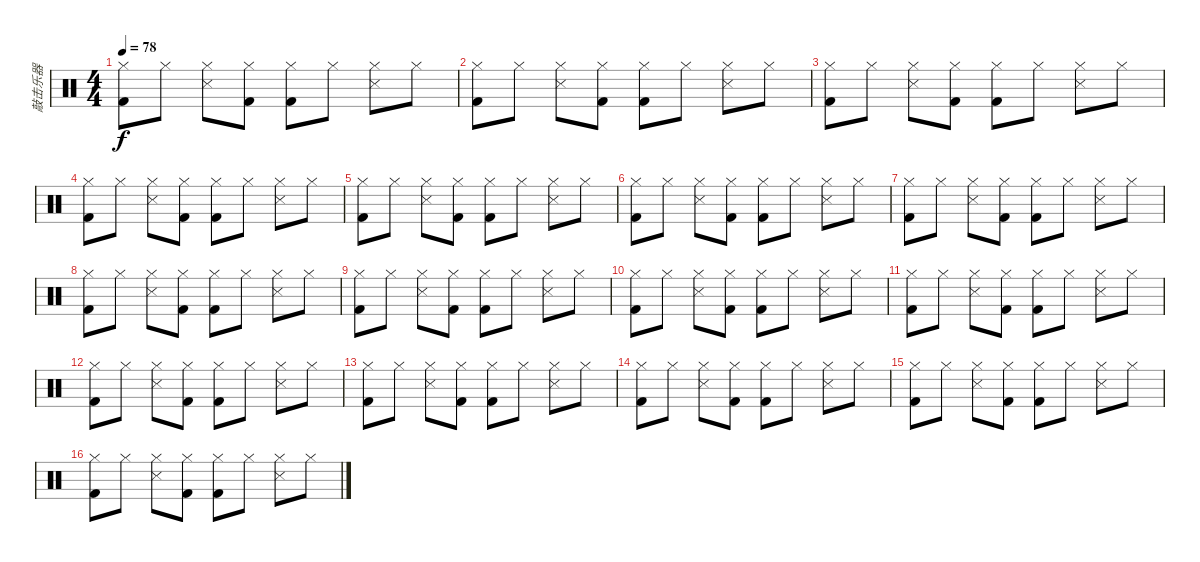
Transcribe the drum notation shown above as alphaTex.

\track ("敲击乐器" "敲击乐器") {instrument percussion}
\staff {score}
\articulation defaults
\ts (4 4)
\tempo 78
\clef neutral
\ks c
("Kick (hit) 2" "Hi-Hat (closed)").8{dy f} "Hi-Hat (closed)".8 ("Snare (side stick) 3" "Hi-Hat (closed)").8 ("Kick (hit) 2" "Hi-Hat (closed)").8 ("Kick (hit) 2" "Hi-Hat (closed)").8 "Hi-Hat (closed)".8 ("Snare (side stick) 3" "Hi-Hat (closed)").8 "Hi-Hat (closed)".8 |
("Kick (hit) 2" "Hi-Hat (closed)").8 "Hi-Hat (closed)".8 ("Snare (side stick) 3" "Hi-Hat (closed)").8 ("Kick (hit) 2" "Hi-Hat (closed)").8 ("Kick (hit) 2" "Hi-Hat (closed)").8 "Hi-Hat (closed)".8 ("Snare (side stick) 3" "Hi-Hat (closed)").8 "Hi-Hat (closed)".8 |
("Kick (hit) 2" "Hi-Hat (closed)").8 "Hi-Hat (closed)".8 ("Snare (side stick) 3" "Hi-Hat (closed)").8 ("Kick (hit) 2" "Hi-Hat (closed)").8 ("Kick (hit) 2" "Hi-Hat (closed)").8 "Hi-Hat (closed)".8 ("Snare (side stick) 3" "Hi-Hat (closed)").8 "Hi-Hat (closed)".8 |
("Kick (hit) 2" "Hi-Hat (closed)").8 "Hi-Hat (closed)".8 ("Snare (side stick) 3" "Hi-Hat (closed)").8 ("Kick (hit) 2" "Hi-Hat (closed)").8 ("Kick (hit) 2" "Hi-Hat (closed)").8 "Hi-Hat (closed)".8 ("Snare (side stick) 3" "Hi-Hat (closed)").8 "Hi-Hat (closed)".8 |
("Kick (hit) 2" "Hi-Hat (closed)").8 "Hi-Hat (closed)".8 ("Snare (side stick) 3" "Hi-Hat (closed)").8 ("Kick (hit) 2" "Hi-Hat (closed)").8 ("Kick (hit) 2" "Hi-Hat (closed)").8 "Hi-Hat (closed)".8 ("Snare (side stick) 3" "Hi-Hat (closed)").8 "Hi-Hat (closed)".8 |
("Kick (hit) 2" "Hi-Hat (closed)").8 "Hi-Hat (closed)".8 ("Snare (side stick) 3" "Hi-Hat (closed)").8 ("Kick (hit) 2" "Hi-Hat (closed)").8 ("Kick (hit) 2" "Hi-Hat (closed)").8 "Hi-Hat (closed)".8 ("Snare (side stick) 3" "Hi-Hat (closed)").8 "Hi-Hat (closed)".8 |
("Kick (hit) 2" "Hi-Hat (closed)").8 "Hi-Hat (closed)".8 ("Snare (side stick) 3" "Hi-Hat (closed)").8 ("Kick (hit) 2" "Hi-Hat (closed)").8 ("Kick (hit) 2" "Hi-Hat (closed)").8 "Hi-Hat (closed)".8 ("Snare (side stick) 3" "Hi-Hat (closed)").8 "Hi-Hat (closed)".8 |
("Kick (hit) 2" "Hi-Hat (closed)").8 "Hi-Hat (closed)".8 ("Snare (side stick) 3" "Hi-Hat (closed)").8 ("Kick (hit) 2" "Hi-Hat (closed)").8 ("Kick (hit) 2" "Hi-Hat (closed)").8 "Hi-Hat (closed)".8 ("Snare (side stick) 3" "Hi-Hat (closed)").8 "Hi-Hat (closed)".8 |
("Kick (hit) 2" "Hi-Hat (closed)").8 "Hi-Hat (closed)".8 ("Snare (side stick) 3" "Hi-Hat (closed)").8 ("Kick (hit) 2" "Hi-Hat (closed)").8 ("Kick (hit) 2" "Hi-Hat (closed)").8 "Hi-Hat (closed)".8 ("Snare (side stick) 3" "Hi-Hat (closed)").8 "Hi-Hat (closed)".8 |
("Kick (hit) 2" "Hi-Hat (closed)").8 "Hi-Hat (closed)".8 ("Snare (side stick) 3" "Hi-Hat (closed)").8 ("Kick (hit) 2" "Hi-Hat (closed)").8 ("Kick (hit) 2" "Hi-Hat (closed)").8 "Hi-Hat (closed)".8 ("Snare (side stick) 3" "Hi-Hat (closed)").8 "Hi-Hat (closed)".8 |
("Kick (hit) 2" "Hi-Hat (closed)").8 "Hi-Hat (closed)".8 ("Snare (side stick) 3" "Hi-Hat (closed)").8 ("Kick (hit) 2" "Hi-Hat (closed)").8 ("Kick (hit) 2" "Hi-Hat (closed)").8 "Hi-Hat (closed)".8 ("Snare (side stick) 3" "Hi-Hat (closed)").8 "Hi-Hat (closed)".8 |
("Kick (hit) 2" "Hi-Hat (closed)").8 "Hi-Hat (closed)".8 ("Snare (side stick) 3" "Hi-Hat (closed)").8 ("Kick (hit) 2" "Hi-Hat (closed)").8 ("Kick (hit) 2" "Hi-Hat (closed)").8 "Hi-Hat (closed)".8 ("Snare (side stick) 3" "Hi-Hat (closed)").8 "Hi-Hat (closed)".8 |
("Kick (hit) 2" "Hi-Hat (closed)").8 "Hi-Hat (closed)".8 ("Snare (side stick) 3" "Hi-Hat (closed)").8 ("Kick (hit) 2" "Hi-Hat (closed)").8 ("Kick (hit) 2" "Hi-Hat (closed)").8 "Hi-Hat (closed)".8 ("Snare (side stick) 3" "Hi-Hat (closed)").8 "Hi-Hat (closed)".8 |
("Kick (hit) 2" "Hi-Hat (closed)").8 "Hi-Hat (closed)".8 ("Snare (side stick) 3" "Hi-Hat (closed)").8 ("Kick (hit) 2" "Hi-Hat (closed)").8 ("Kick (hit) 2" "Hi-Hat (closed)").8 "Hi-Hat (closed)".8 ("Snare (side stick) 3" "Hi-Hat (closed)").8 "Hi-Hat (closed)".8 |
("Kick (hit) 2" "Hi-Hat (closed)").8 "Hi-Hat (closed)".8 ("Snare (side stick) 3" "Hi-Hat (closed)").8 ("Kick (hit) 2" "Hi-Hat (closed)").8 ("Kick (hit) 2" "Hi-Hat (closed)").8 "Hi-Hat (closed)".8 ("Snare (side stick) 3" "Hi-Hat (closed)").8 "Hi-Hat (closed)".8 |
("Kick (hit) 2" "Hi-Hat (closed)").8 "Hi-Hat (closed)".8 ("Snare (side stick) 3" "Hi-Hat (closed)").8 ("Kick (hit) 2" "Hi-Hat (closed)").8 ("Kick (hit) 2" "Hi-Hat (closed)").8 "Hi-Hat (closed)".8 ("Snare (side stick) 3" "Hi-Hat (closed)").8 "Hi-Hat (closed)".8
